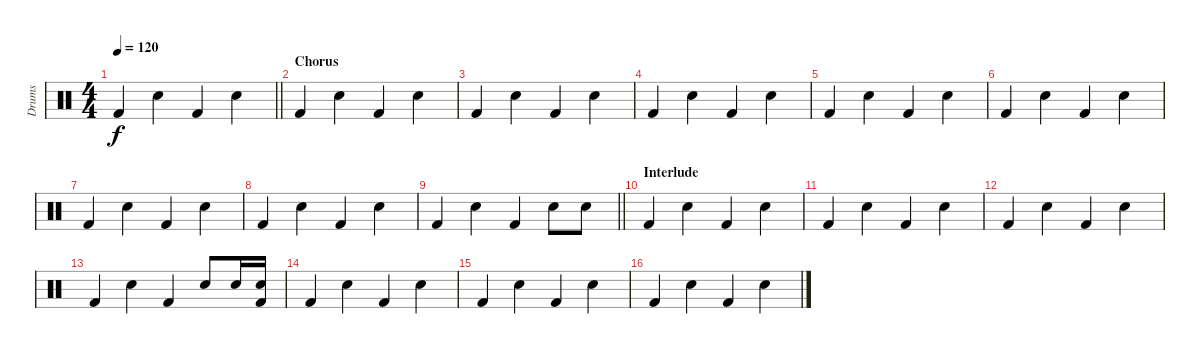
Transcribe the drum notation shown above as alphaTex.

\track ("Drums" "Drums") {instrument percussion}
\staff {score}
\articulation defaults
\ts (4 4)
\tempo 120
\clef neutral
\barLineRight lightlight
\ks c "Kick (hit) 2".4{dy f} "Electric Snare (hit)".4 "Kick (hit) 2".4 "Electric Snare (hit)".4
|
\section ("" "Chorus")
"Kick (hit) 2".4 "Electric Snare (hit)".4 "Kick (hit) 2".4 "Electric Snare (hit)".4 |
"Kick (hit) 2".4 "Electric Snare (hit)".4 "Kick (hit) 2".4 "Electric Snare (hit)".4 |
"Kick (hit) 2".4 "Electric Snare (hit)".4 "Kick (hit) 2".4 "Electric Snare (hit)".4 |
"Kick (hit) 2".4 "Electric Snare (hit)".4 "Kick (hit) 2".4 "Electric Snare (hit)".4 |
"Kick (hit) 2".4 "Electric Snare (hit)".4 "Kick (hit) 2".4 "Electric Snare (hit)".4 |
"Kick (hit) 2".4 "Electric Snare (hit)".4 "Kick (hit) 2".4 "Electric Snare (hit)".4 |
"Kick (hit) 2".4 "Electric Snare (hit)".4 "Kick (hit) 2".4 "Electric Snare (hit)".4 |
\barLineRight lightlight "Kick (hit) 2".4 "Electric Snare (hit)".4 "Kick (hit) 2".4 "Electric Snare (hit)".8 "Electric Snare (hit)".8
|
\section ("" "Interlude")
"Kick (hit) 2".4 "Electric Snare (hit)".4 "Kick (hit) 2".4 "Electric Snare (hit)".4 |
"Kick (hit) 2".4 "Electric Snare (hit)".4 "Kick (hit) 2".4 "Electric Snare (hit)".4 |
"Kick (hit) 2".4 "Electric Snare (hit)".4 "Kick (hit) 2".4 "Electric Snare (hit)".4 |
"Kick (hit) 2".4 "Electric Snare (hit)".4 "Kick (hit) 2".4 "Electric Snare (hit)".8 "Electric Snare (hit)".16 ("Electric Snare (hit)" "Kick (hit) 2").16 |
"Kick (hit) 2".4 "Electric Snare (hit)".4 "Kick (hit) 2".4 "Electric Snare (hit)".4 |
"Kick (hit) 2".4 "Electric Snare (hit)".4 "Kick (hit) 2".4 "Electric Snare (hit)".4 |
"Kick (hit) 2".4 "Electric Snare (hit)".4 "Kick (hit) 2".4 "Electric Snare (hit)".4
